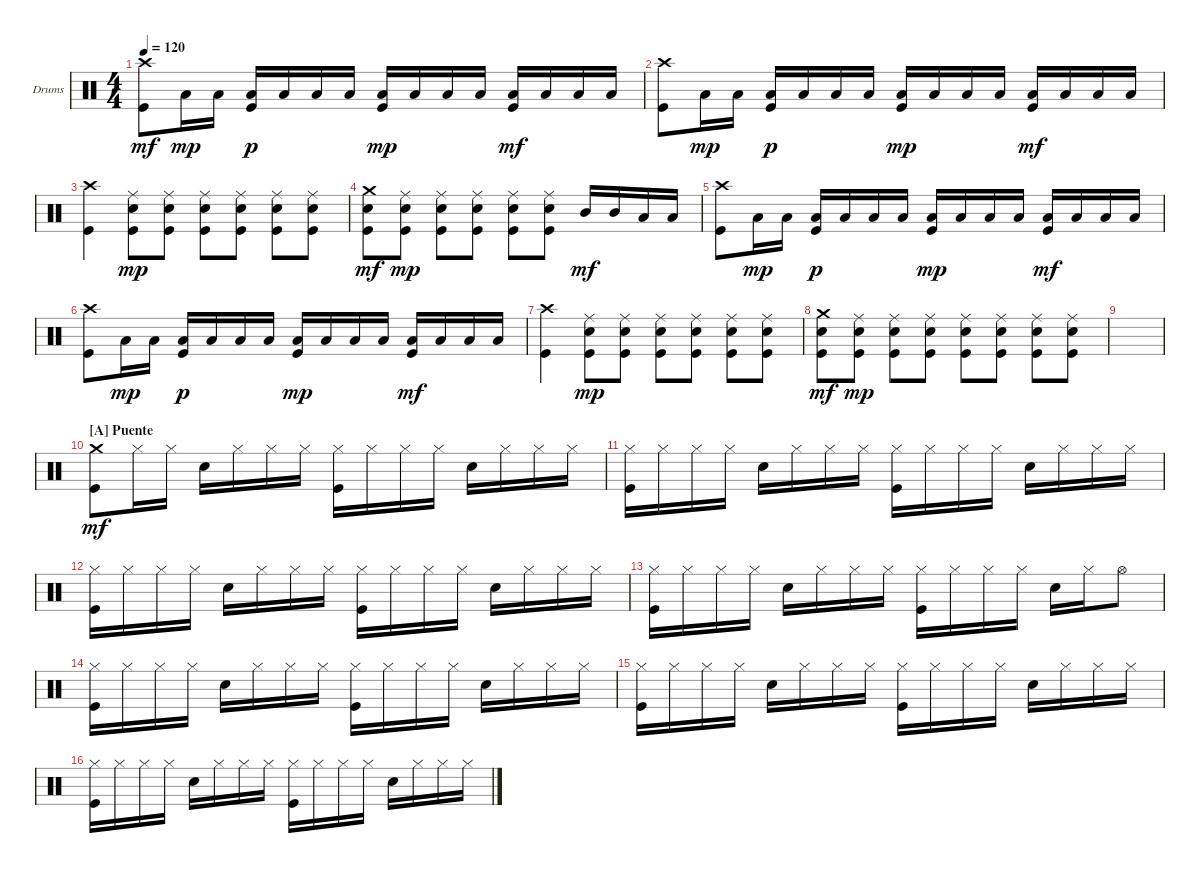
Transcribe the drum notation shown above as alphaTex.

\bracketExtendMode groupsimilarinstruments
\firstSystemTrackNameOrientation horizontal
\otherSystemsTrackNameOrientation horizontal
\track ("Drums Ghoul" "Drums") {instrument percussion}
\staff {score}
\articulation defaults
\ts (4 4)
\tempo 120
\clef neutral
\ks c
("Crash high (hit)" "Kick (hit)").8{dy mf} "Low Tom (hit)".16{dy mp} "Low Tom (hit)".16 ("Low Tom (hit)" "Kick (hit)").16{dy p} "Low Tom (hit)".16 "Low Tom (hit)".16 "Low Tom (hit)".16 ("Low Tom (hit)" "Kick (hit)").16{dy mp} "Low Tom (hit)".16 "Low Tom (hit)".16 "Low Tom (hit)".16 ("Low Tom (hit)" "Kick (hit)").16{dy mf} "Low Tom (hit)".16 "Low Tom (hit)".16 "Low Tom (hit)".16 |
("Crash high (hit)" "Kick (hit)").8 "Low Tom (hit)".16{dy mp} "Low Tom (hit)".16 ("Low Tom (hit)" "Kick (hit)").16{dy p} "Low Tom (hit)".16 "Low Tom (hit)".16 "Low Tom (hit)".16 ("Low Tom (hit)" "Kick (hit)").16{dy mp} "Low Tom (hit)".16 "Low Tom (hit)".16 "Low Tom (hit)".16 ("Low Tom (hit)" "Kick (hit)").16{dy mf} "Low Tom (hit)".16 "Low Tom (hit)".16 "Low Tom (hit)".16 |
("Kick (hit)" "Crash high (hit)").4 ("Kick (hit)" "Snare (hit) 2" "Ride (middle)").8{dy mp} ("Kick (hit)" "Snare (hit) 2" "Ride (middle)").8 ("Kick (hit)" "Snare (hit) 2" "Ride (middle)").8 ("Kick (hit)" "Snare (hit) 2" "Ride (middle)").8 ("Kick (hit)" "Snare (hit) 2" "Ride (middle)").8 ("Kick (hit)" "Snare (hit) 2" "Ride (middle)").8 |
("Kick (hit)" "Crash medium (hit)" "Snare (hit) 2").8{dy mf} ("Kick (hit)" "Snare (hit) 2" "Ride (middle)").8{dy mp} ("Kick (hit)" "Snare (hit) 2" "Ride (middle)").8 ("Kick (hit)" "Snare (hit) 2" "Ride (middle)").8 ("Kick (hit)" "Snare (hit) 2" "Ride (middle)").8 ("Kick (hit)" "Snare (hit) 2" "Ride (middle)").8 "Mid Tom (hit)".16{dy mf} "Mid Tom (hit)".16 "Low Tom (hit)".16 "Low Tom (hit)".16 |
("Crash high (hit)" "Kick (hit)").8 "Low Tom (hit)".16{dy mp} "Low Tom (hit)".16 ("Low Tom (hit)" "Kick (hit)").16{dy p} "Low Tom (hit)".16 "Low Tom (hit)".16 "Low Tom (hit)".16 ("Low Tom (hit)" "Kick (hit)").16{dy mp} "Low Tom (hit)".16 "Low Tom (hit)".16 "Low Tom (hit)".16 ("Low Tom (hit)" "Kick (hit)").16{dy mf} "Low Tom (hit)".16 "Low Tom (hit)".16 "Low Tom (hit)".16 |
("Crash high (hit)" "Kick (hit)").8 "Low Tom (hit)".16{dy mp} "Low Tom (hit)".16 ("Low Tom (hit)" "Kick (hit)").16{dy p} "Low Tom (hit)".16 "Low Tom (hit)".16 "Low Tom (hit)".16 ("Low Tom (hit)" "Kick (hit)").16{dy mp} "Low Tom (hit)".16 "Low Tom (hit)".16 "Low Tom (hit)".16 ("Low Tom (hit)" "Kick (hit)").16{dy mf} "Low Tom (hit)".16 "Low Tom (hit)".16 "Low Tom (hit)".16 |
("Kick (hit)" "Crash high (hit)").4 ("Kick (hit)" "Snare (hit) 2" "Ride (middle)").8{dy mp} ("Kick (hit)" "Snare (hit) 2" "Ride (middle)").8 ("Kick (hit)" "Snare (hit) 2" "Ride (middle)").8 ("Kick (hit)" "Snare (hit) 2" "Ride (middle)").8 ("Kick (hit)" "Snare (hit) 2" "Ride (middle)").8 ("Kick (hit)" "Snare (hit) 2" "Ride (middle)").8 |
("Kick (hit)" "Crash medium (hit)" "Snare (hit) 2").8{dy mf} ("Kick (hit)" "Snare (hit) 2" "Ride (middle)").8{dy mp} ("Kick (hit)" "Snare (hit) 2" "Ride (middle)").8 ("Kick (hit)" "Snare (hit) 2" "Ride (middle)").8 ("Kick (hit)" "Snare (hit) 2" "Ride (middle)").8 ("Kick (hit)" "Snare (hit) 2" "Ride (middle)").8 ("Kick (hit)" "Snare (hit) 2" "Ride (middle)").8 ("Kick (hit)" "Snare (hit) 2" "Ride (middle)").8 |
|
\section ("A" "Puente")
("Kick (hit)" "Crash medium (hit)").8{dy mf} "Hi-Hat (closed)".16 "Hi-Hat (closed)".16 "Snare (hit) 2".16 "Hi-Hat (closed)".16 "Hi-Hat (closed)".16 "Hi-Hat (closed)".16 ("Hi-Hat (closed)" "Kick (hit)").16 "Hi-Hat (closed)".16 "Hi-Hat (closed)".16 "Hi-Hat (closed)".16 "Snare (hit) 2".16 "Hi-Hat (closed)".16 "Hi-Hat (closed)".16 "Hi-Hat (closed)".16 |
("Hi-Hat (closed)" "Kick (hit)").16 "Hi-Hat (closed)".16 "Hi-Hat (closed)".16 "Hi-Hat (closed)".16 "Snare (hit) 2".16 "Hi-Hat (closed)".16 "Hi-Hat (closed)".16 "Hi-Hat (closed)".16 ("Hi-Hat (closed)" "Kick (hit)").16 "Hi-Hat (closed)".16 "Hi-Hat (closed)".16 "Hi-Hat (closed)".16 "Snare (hit) 2".16 "Hi-Hat (closed)".16 "Hi-Hat (closed)".16 "Hi-Hat (closed)".16 |
("Hi-Hat (closed)" "Kick (hit)").16 "Hi-Hat (closed)".16 "Hi-Hat (closed)".16 "Hi-Hat (closed)".16 "Snare (hit) 2".16 "Hi-Hat (closed)".16 "Hi-Hat (closed)".16 "Hi-Hat (closed)".16 ("Hi-Hat (closed)" "Kick (hit)").16 "Hi-Hat (closed)".16 "Hi-Hat (closed)".16 "Hi-Hat (closed)".16 "Snare (hit) 2".16 "Hi-Hat (closed)".16 "Hi-Hat (closed)".16 "Hi-Hat (closed)".16 |
("Hi-Hat (closed)" "Kick (hit)").16 "Hi-Hat (closed)".16 "Hi-Hat (closed)".16 "Hi-Hat (closed)".16 "Snare (hit) 2".16 "Hi-Hat (closed)".16 "Hi-Hat (closed)".16 "Hi-Hat (closed)".16 ("Hi-Hat (closed)" "Kick (hit)").16 "Hi-Hat (closed)".16 "Hi-Hat (closed)".16 "Hi-Hat (closed)".16 "Snare (hit) 2".16 "Hi-Hat (closed)".16 "Hi-Hat (open)".8 |
("Kick (hit)" "Hi-Hat (closed)").16 "Hi-Hat (closed)".16 "Hi-Hat (closed)".16 "Hi-Hat (closed)".16 "Snare (hit) 2".16 "Hi-Hat (closed)".16 "Hi-Hat (closed)".16 "Hi-Hat (closed)".16 ("Hi-Hat (closed)" "Kick (hit)").16 "Hi-Hat (closed)".16 "Hi-Hat (closed)".16 "Hi-Hat (closed)".16 "Snare (hit) 2".16 "Hi-Hat (closed)".16 "Hi-Hat (closed)".16 "Hi-Hat (closed)".16 |
("Hi-Hat (closed)" "Kick (hit)").16 "Hi-Hat (closed)".16 "Hi-Hat (closed)".16 "Hi-Hat (closed)".16 "Snare (hit) 2".16 "Hi-Hat (closed)".16 "Hi-Hat (closed)".16 "Hi-Hat (closed)".16 ("Hi-Hat (closed)" "Kick (hit)").16 "Hi-Hat (closed)".16 "Hi-Hat (closed)".16 "Hi-Hat (closed)".16 "Snare (hit) 2".16 "Hi-Hat (closed)".16 "Hi-Hat (closed)".16 "Hi-Hat (closed)".16 |
("Hi-Hat (closed)" "Kick (hit)").16 "Hi-Hat (closed)".16 "Hi-Hat (closed)".16 "Hi-Hat (closed)".16 "Snare (hit) 2".16 "Hi-Hat (closed)".16 "Hi-Hat (closed)".16 "Hi-Hat (closed)".16 ("Hi-Hat (closed)" "Kick (hit)").16 "Hi-Hat (closed)".16 "Hi-Hat (closed)".16 "Hi-Hat (closed)".16 "Snare (hit) 2".16 "Hi-Hat (closed)".16 "Hi-Hat (closed)".16 "Hi-Hat (closed)".16
